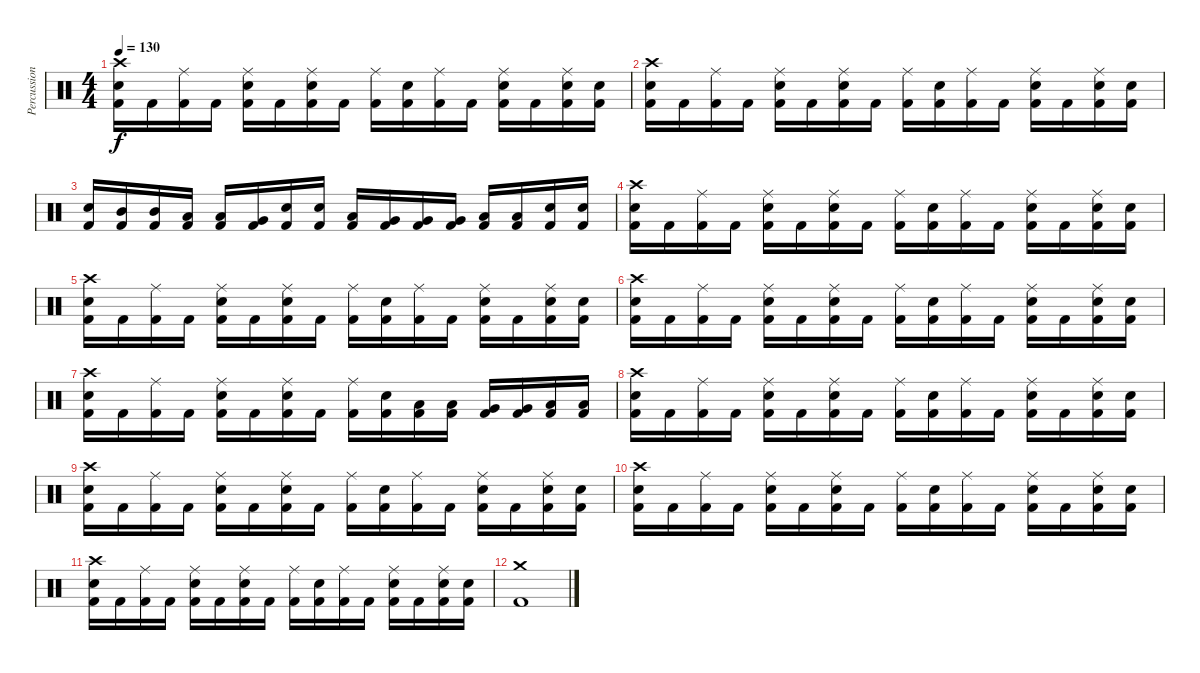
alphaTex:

\track ("Percussion" "Percussion") {instrument percussion}
\staff {score}
\articulation defaults
\ts (4 4)
\tempo 130
\clef neutral
\ks c
("Crash high (hit)" "Snare (hit) 2" "Kick (hit) 2").16{dy f} "Kick (hit) 2".16 ("Ride (middle)" "Kick (hit) 2").16 "Kick (hit) 2".16 ("Ride (middle)" "Snare (hit) 2" "Kick (hit) 2").16 "Kick (hit) 2".16 ("Ride (middle)" "Snare (hit) 2" "Kick (hit) 2").16 "Kick (hit) 2".16 ("Ride (middle)" "Kick (hit) 2").16 ("Snare (hit) 2" "Kick (hit) 2").16 ("Ride (middle)" "Kick (hit) 2").16 "Kick (hit) 2".16 ("Ride (middle)" "Snare (hit) 2" "Kick (hit) 2").16 "Kick (hit) 2".16 ("Ride (middle)" "Snare (hit) 2" "Kick (hit) 2").16 ("Snare (hit) 2" "Kick (hit) 2").16 |
("Crash high (hit)" "Snare (hit) 2" "Kick (hit) 2").16 "Kick (hit) 2".16 ("Ride (middle)" "Kick (hit) 2").16 "Kick (hit) 2".16 ("Ride (middle)" "Snare (hit) 2" "Kick (hit) 2").16 "Kick (hit) 2".16 ("Ride (middle)" "Snare (hit) 2" "Kick (hit) 2").16 "Kick (hit) 2".16 ("Ride (middle)" "Kick (hit) 2").16 ("Snare (hit) 2" "Kick (hit) 2").16 ("Ride (middle)" "Kick (hit) 2").16 "Kick (hit) 2".16 ("Ride (middle)" "Snare (hit) 2" "Kick (hit) 2").16 "Kick (hit) 2".16 ("Ride (middle)" "Snare (hit) 2" "Kick (hit) 2").16 ("Snare (hit) 2" "Kick (hit) 2").16 |
("Snare (hit) 2" "Kick (hit) 2").16 ("Mid Tom (hit)" "Kick (hit) 2").16 ("Mid Tom (hit)" "Kick (hit) 2").16 ("Low Tom (hit)" "Kick (hit) 2").16 ("Low Tom (hit)" "Kick (hit) 2").16 ("Very Low Tom (hit)" "Kick (hit) 2").16 ("Electric Snare (hit)" "Kick (hit) 2").16 ("Electric Snare (hit)" "Kick (hit) 2").16 ("Low Tom (hit)" "Kick (hit) 2").16 ("Very Low Tom (hit)" "Kick (hit) 2").16 ("Very Low Tom (hit)" "Kick (hit) 2").16 ("Very Low Tom (hit)" "Kick (hit) 2").16 ("Low Floor Tom (hit)" "Kick (hit) 2").16 ("Low Floor Tom (hit)" "Kick (hit) 2").16 ("Snare (hit) 2" "Kick (hit) 2").16 ("Snare (hit) 2" "Kick (hit) 2").16 |
("Crash high (hit)" "Snare (hit) 2" "Kick (hit) 2").16 "Kick (hit) 2".16 ("Ride (middle)" "Kick (hit) 2").16 "Kick (hit) 2".16 ("Ride (middle)" "Snare (hit) 2" "Kick (hit) 2").16 "Kick (hit) 2".16 ("Ride (middle)" "Snare (hit) 2" "Kick (hit) 2").16 "Kick (hit) 2".16 ("Ride (middle)" "Kick (hit) 2").16 ("Snare (hit) 2" "Kick (hit) 2").16 ("Ride (middle)" "Kick (hit) 2").16 "Kick (hit) 2".16 ("Ride (middle)" "Snare (hit) 2" "Kick (hit) 2").16 "Kick (hit) 2".16 ("Ride (middle)" "Snare (hit) 2" "Kick (hit) 2").16 ("Snare (hit) 2" "Kick (hit) 2").16 |
("Crash high (hit)" "Snare (hit) 2" "Kick (hit) 2").16 "Kick (hit) 2".16 ("Ride (middle)" "Kick (hit) 2").16 "Kick (hit) 2".16 ("Ride (middle)" "Snare (hit) 2" "Kick (hit) 2").16 "Kick (hit) 2".16 ("Ride (middle)" "Snare (hit) 2" "Kick (hit) 2").16 "Kick (hit) 2".16 ("Ride (middle)" "Kick (hit) 2").16 ("Snare (hit) 2" "Kick (hit) 2").16 ("Ride (middle)" "Kick (hit) 2").16 "Kick (hit) 2".16 ("Ride (middle)" "Snare (hit) 2" "Kick (hit) 2").16 "Kick (hit) 2".16 ("Ride (middle)" "Snare (hit) 2" "Kick (hit) 2").16 ("Snare (hit) 2" "Kick (hit) 2").16 |
("Crash high (hit)" "Snare (hit) 2" "Kick (hit) 2").16 "Kick (hit) 2".16 ("Ride (middle)" "Kick (hit) 2").16 "Kick (hit) 2".16 ("Ride (middle)" "Snare (hit) 2" "Kick (hit) 2").16 "Kick (hit) 2".16 ("Ride (middle)" "Snare (hit) 2" "Kick (hit) 2").16 "Kick (hit) 2".16 ("Ride (middle)" "Kick (hit) 2").16 ("Snare (hit) 2" "Kick (hit) 2").16 ("Ride (middle)" "Kick (hit) 2").16 "Kick (hit) 2".16 ("Ride (middle)" "Snare (hit) 2" "Kick (hit) 2").16 "Kick (hit) 2".16 ("Ride (middle)" "Snare (hit) 2" "Kick (hit) 2").16 ("Snare (hit) 2" "Kick (hit) 2").16 |
("Crash high (hit)" "Snare (hit) 2" "Kick (hit) 2").16 "Kick (hit) 2".16 ("Ride (middle)" "Kick (hit) 2").16 "Kick (hit) 2".16 ("Ride (middle)" "Snare (hit) 2" "Kick (hit) 2").16 "Kick (hit) 2".16 ("Ride (middle)" "Snare (hit) 2" "Kick (hit) 2").16 "Kick (hit) 2".16 ("Ride (middle)" "Kick (hit) 2").16 ("Snare (hit) 2" "Kick (hit) 2").16 ("Low Tom (hit)" "Kick (hit) 2").16 ("Low Tom (hit)" "Kick (hit) 2").16 ("Very Low Tom (hit)" "Kick (hit) 2").16 ("Very Low Tom (hit)" "Kick (hit) 2").16 ("Low Floor Tom (hit)" "Kick (hit) 2").16 ("Low Floor Tom (hit)" "Kick (hit) 2").16 |
("Crash high (hit)" "Snare (hit) 2" "Kick (hit) 2").16 "Kick (hit) 2".16 ("Ride (middle)" "Kick (hit) 2").16 "Kick (hit) 2".16 ("Ride (middle)" "Snare (hit) 2" "Kick (hit) 2").16 "Kick (hit) 2".16 ("Ride (middle)" "Snare (hit) 2" "Kick (hit) 2").16 "Kick (hit) 2".16 ("Ride (middle)" "Kick (hit) 2").16 ("Snare (hit) 2" "Kick (hit) 2").16 ("Ride (middle)" "Kick (hit) 2").16 "Kick (hit) 2".16 ("Ride (middle)" "Snare (hit) 2" "Kick (hit) 2").16 "Kick (hit) 2".16 ("Ride (middle)" "Snare (hit) 2" "Kick (hit) 2").16 ("Snare (hit) 2" "Kick (hit) 2").16 |
("Crash high (hit)" "Snare (hit) 2" "Kick (hit) 2").16 "Kick (hit) 2".16 ("Ride (middle)" "Kick (hit) 2").16 "Kick (hit) 2".16 ("Ride (middle)" "Snare (hit) 2" "Kick (hit) 2").16 "Kick (hit) 2".16 ("Ride (middle)" "Snare (hit) 2" "Kick (hit) 2").16 "Kick (hit) 2".16 ("Ride (middle)" "Kick (hit) 2").16 ("Snare (hit) 2" "Kick (hit) 2").16 ("Ride (middle)" "Kick (hit) 2").16 "Kick (hit) 2".16 ("Ride (middle)" "Snare (hit) 2" "Kick (hit) 2").16 "Kick (hit) 2".16 ("Ride (middle)" "Snare (hit) 2" "Kick (hit) 2").16 ("Snare (hit) 2" "Kick (hit) 2").16 |
("Crash high (hit)" "Snare (hit) 2" "Kick (hit) 2").16 "Kick (hit) 2".16 ("Ride (middle)" "Kick (hit) 2").16 "Kick (hit) 2".16 ("Ride (middle)" "Snare (hit) 2" "Kick (hit) 2").16 "Kick (hit) 2".16 ("Ride (middle)" "Snare (hit) 2" "Kick (hit) 2").16 "Kick (hit) 2".16 ("Ride (middle)" "Kick (hit) 2").16 ("Snare (hit) 2" "Kick (hit) 2").16 ("Ride (middle)" "Kick (hit) 2").16 "Kick (hit) 2".16 ("Ride (middle)" "Snare (hit) 2" "Kick (hit) 2").16 "Kick (hit) 2".16 ("Ride (middle)" "Snare (hit) 2" "Kick (hit) 2").16 ("Snare (hit) 2" "Kick (hit) 2").16 |
("Crash high (hit)" "Snare (hit) 2" "Kick (hit) 2").16 "Kick (hit) 2".16 ("Ride (middle)" "Kick (hit) 2").16 "Kick (hit) 2".16 ("Ride (middle)" "Snare (hit) 2" "Kick (hit) 2").16 "Kick (hit) 2".16 ("Ride (middle)" "Snare (hit) 2" "Kick (hit) 2").16 "Kick (hit) 2".16 ("Ride (middle)" "Kick (hit) 2").16 ("Snare (hit) 2" "Kick (hit) 2").16 ("Ride (middle)" "Kick (hit) 2").16 "Kick (hit) 2".16 ("Ride (middle)" "Snare (hit) 2" "Kick (hit) 2").16 "Kick (hit) 2".16 ("Ride (middle)" "Snare (hit) 2" "Kick (hit) 2").16 ("Snare (hit) 2" "Kick (hit) 2").16 |
("Crash medium (hit)" "Kick (hit) 2").1
